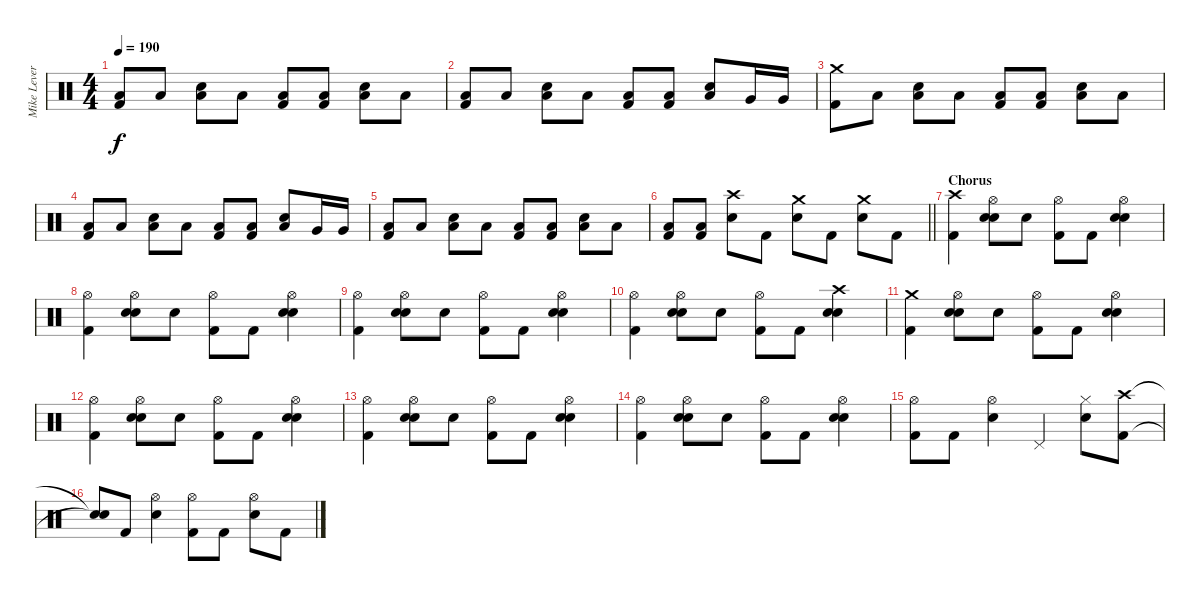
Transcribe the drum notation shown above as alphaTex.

\track ("Mike Leverence - Drums" "Mike Lever") {instrument percussion}
\staff {score}
\articulation defaults
\ts (4 4)
\tempo 190
\clef neutral
\ks c
("Low Floor Tom (hit)" "Kick (hit) 2").8{dy f} "Low Floor Tom (hit)".8 ("Low Floor Tom (hit)" "Electric Snare (hit)").8 "Low Floor Tom (hit)".8 ("Low Floor Tom (hit)" "Kick (hit) 2").8 ("Low Floor Tom (hit)" "Kick (hit) 2").8 ("Low Floor Tom (hit)" "Electric Snare (hit)").8 "Low Floor Tom (hit)".8 |
("Low Floor Tom (hit)" "Kick (hit) 2").8 "Low Floor Tom (hit)".8 ("Low Floor Tom (hit)" "Electric Snare (hit)").8 "Low Floor Tom (hit)".8 ("Low Floor Tom (hit)" "Kick (hit) 2").8 ("Low Floor Tom (hit)" "Kick (hit) 2").8 ("Low Floor Tom (hit)" "Electric Snare (hit)").8 "Very Low Tom (hit)".16 "Very Low Tom (hit)".16 |
("Crash medium (hit)" "Kick (hit) 2").8 "Low Floor Tom (hit)".8 ("Low Floor Tom (hit)" "Electric Snare (hit)").8 "Low Floor Tom (hit)".8 ("Low Floor Tom (hit)" "Kick (hit) 2").8 ("Low Floor Tom (hit)" "Kick (hit) 2").8 ("Low Floor Tom (hit)" "Electric Snare (hit)").8 "Low Floor Tom (hit)".8 |
("Low Floor Tom (hit)" "Kick (hit) 2").8 "Low Floor Tom (hit)".8 ("Low Floor Tom (hit)" "Electric Snare (hit)").8 "Low Floor Tom (hit)".8 ("Low Floor Tom (hit)" "Kick (hit) 2").8 ("Low Floor Tom (hit)" "Kick (hit) 2").8 ("Low Floor Tom (hit)" "Electric Snare (hit)").8 "Very Low Tom (hit)".16 "Very Low Tom (hit)".16 |
("Low Floor Tom (hit)" "Kick (hit) 2").8 "Low Floor Tom (hit)".8 ("Low Floor Tom (hit)" "Electric Snare (hit)").8 "Low Floor Tom (hit)".8 ("Low Floor Tom (hit)" "Kick (hit) 2").8 ("Low Floor Tom (hit)" "Kick (hit) 2").8 ("Low Floor Tom (hit)" "Electric Snare (hit)").8 "Low Floor Tom (hit)".8 |
\barLineRight lightlight
("Low Floor Tom (hit)" "Kick (hit) 2").8 ("Low Floor Tom (hit)" "Kick (hit) 2").8 ("Crash high (hit)" "Electric Snare (hit)").8 "Kick (hit) 2".8 ("Crash medium (hit)" "Electric Snare (hit)").8 "Kick (hit) 2".8 ("Crash medium (hit)" "Electric Snare (hit)").8 "Kick (hit) 2".8 |
\section ("" "Chorus")
("Crash high (hit)" "Kick (hit) 2").4 ("Hi-Hat (open)" "Hand Clap (hit)" "Electric Snare (hit)").8 "Hand Clap (hit)".8 ("Hi-Hat (open)" "Kick (hit) 2").8 "Kick (hit) 2".8 ("Hi-Hat (open)" "Hand Clap (hit)" "Electric Snare (hit)").4 |
("Hi-Hat (open)" "Kick (hit) 2").4 ("Hi-Hat (open)" "Hand Clap (hit)" "Electric Snare (hit)").8 "Hand Clap (hit)".8 ("Hi-Hat (open)" "Kick (hit) 2").8 "Kick (hit) 2".8 ("Hi-Hat (open)" "Hand Clap (hit)" "Electric Snare (hit)").4 |
("Hi-Hat (open)" "Kick (hit) 2").4 ("Hi-Hat (open)" "Hand Clap (hit)" "Electric Snare (hit)").8 "Hand Clap (hit)".8 ("Hi-Hat (open)" "Kick (hit) 2").8 "Kick (hit) 2".8 ("Hi-Hat (open)" "Hand Clap (hit)" "Electric Snare (hit)").4 |
("Hi-Hat (open)" "Kick (hit) 2").4 ("Hi-Hat (open)" "Hand Clap (hit)" "Electric Snare (hit)").8 "Hand Clap (hit)".8 ("Hi-Hat (open)" "Kick (hit) 2").8 "Kick (hit) 2".8 ("Crash high (hit)" "Hand Clap (hit)" "Electric Snare (hit)").4 |
("Crash medium (hit)" "Kick (hit) 2").4 ("Hi-Hat (open)" "Hand Clap (hit)" "Electric Snare (hit)").8 "Hand Clap (hit)".8 ("Hi-Hat (open)" "Kick (hit) 2").8 "Kick (hit) 2".8 ("Hi-Hat (open)" "Hand Clap (hit)" "Electric Snare (hit)").4 |
("Hi-Hat (open)" "Kick (hit) 2").4 ("Hi-Hat (open)" "Hand Clap (hit)" "Electric Snare (hit)").8 "Hand Clap (hit)".8 ("Hi-Hat (open)" "Kick (hit) 2").8 "Kick (hit) 2".8 ("Hi-Hat (open)" "Hand Clap (hit)" "Electric Snare (hit)").4 |
("Hi-Hat (open)" "Kick (hit) 2").4 ("Hi-Hat (open)" "Hand Clap (hit)" "Electric Snare (hit)").8 "Hand Clap (hit)".8 ("Hi-Hat (open)" "Kick (hit) 2").8 "Kick (hit) 2".8 ("Hi-Hat (open)" "Hand Clap (hit)" "Electric Snare (hit)").4 |
("Hi-Hat (open)" "Kick (hit) 2").4 ("Hi-Hat (open)" "Hand Clap (hit)" "Electric Snare (hit)").8 "Hand Clap (hit)".8 ("Hi-Hat (open)" "Kick (hit) 2").8 "Kick (hit) 2".8 ("Hi-Hat (open)" "Hand Clap (hit)" "Electric Snare (hit)").4 |
("Hi-Hat (open)" "Kick (hit) 2").8 "Kick (hit) 2".8 ("Hi-Hat (open)" "Electric Snare (hit)").4 "Pedal Hi-Hat (hit)".4 ("Hi-Hat (closed)" "Electric Snare (hit)").8 ("Crash high (hit)" "Kick (hit) 2").8 |
("Snare (hit)"{t} "Snare (hit)"{t}).8 "Kick (hit) 2".8 ("Hi-Hat (open)" "Electric Snare (hit)").4 ("Hi-Hat (open)" "Kick (hit) 2").8 "Kick (hit) 2".8 ("Hi-Hat (open)" "Electric Snare (hit)").8 "Kick (hit) 2".8
